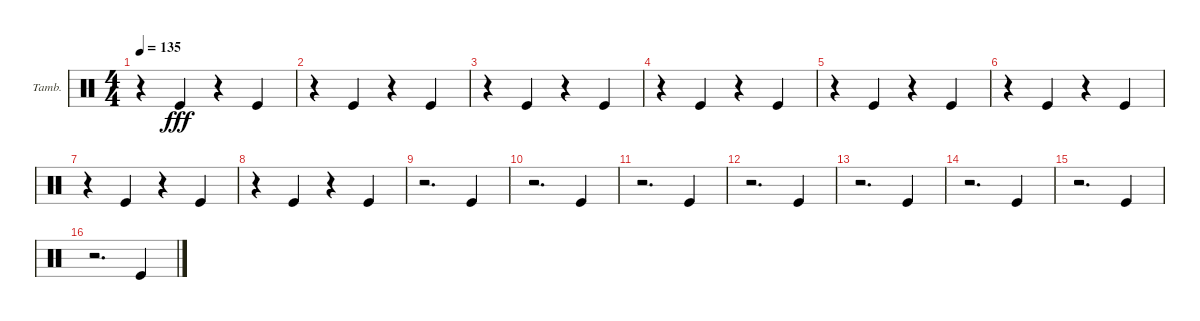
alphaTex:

\defaultSystemsLayout 4
\bracketExtendMode groupsimilarinstruments
\firstSystemTrackNameOrientation horizontal
\otherSystemsTrackNameOrientation horizontal
\track ("Tambourine" "Tamb.") {instrument percussion}
\staff {score}
\articulation defaults
\ts (4 4)
\tempo 135
\clef neutral
\scale
0.333333
\ks c
r.4{dy fff} "Kick (hit)".4 r.4 "Kick (hit)".4 |
\scale
0.333333 r.4 "Kick (hit)".4 r.4 "Kick (hit)".4 |
\scale
0.333333 r.4 "Kick (hit)".4 r.4 "Kick (hit)".4 |
\scale
0.333333 r.4 "Kick (hit)".4 r.4 "Kick (hit)".4 |
\scale
0.333333 r.4 "Kick (hit)".4 r.4 "Kick (hit)".4 |
\scale
0.333333 r.4 "Kick (hit)".4 r.4 "Kick (hit)".4 |
\scale
0.333333 r.4 "Kick (hit)".4 r.4 "Kick (hit)".4 |
\scale
0.333333 r.4 "Kick (hit)".4 r.4 "Kick (hit)".4 |
\scale
0.333333 r.2{d} "Kick (hit)".4 |
\scale
0.333333 r.2{d} "Kick (hit)".4 |
\scale
0.333333 r.2{d} "Kick (hit)".4 |
\scale
0.333333 r.2{d} "Kick (hit)".4 |
\scale
0.333333 r.2{d} "Kick (hit)".4 |
\scale
0.333333 r.2{d} "Kick (hit)".4 |
\scale
0.333333 r.2{d} "Kick (hit)".4 |
\scale
0.333333 r.2{d} "Kick (hit)".4
